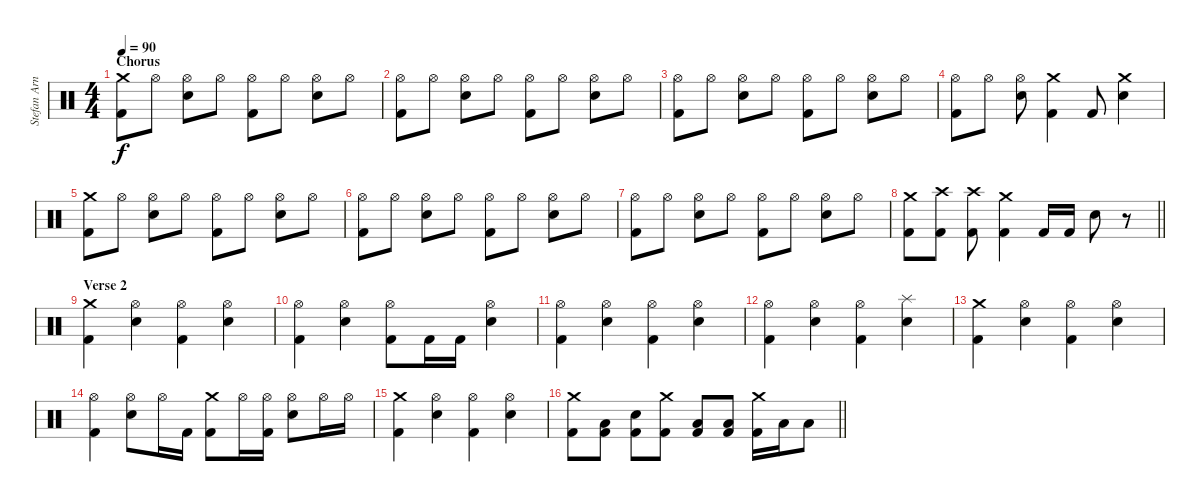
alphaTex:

\track ("Stefan Arnold" "Stefan Arn") {instrument percussion}
\staff {score}
\articulation defaults
\ts (4 4)
\section ("" "Chorus")
\tempo 90
\clef neutral
\ks c
("Crash medium (hit)" "Kick (hit) 2").8{dy f} "Hi-Hat (open)".8 ("Hi-Hat (open)" "Electric Snare (hit)").8 "Hi-Hat (open)".8 ("Hi-Hat (open)" "Kick (hit) 2").8 "Hi-Hat (open)".8 ("Hi-Hat (open)" "Electric Snare (hit)").8 "Hi-Hat (open)".8 |
("Hi-Hat (open)" "Kick (hit) 2").8 "Hi-Hat (open)".8 ("Hi-Hat (open)" "Electric Snare (hit)").8 "Hi-Hat (open)".8 ("Hi-Hat (open)" "Kick (hit) 2").8 "Hi-Hat (open)".8 ("Hi-Hat (open)" "Electric Snare (hit)").8 "Hi-Hat (open)".8 |
("Hi-Hat (open)" "Kick (hit) 2").8 "Hi-Hat (open)".8 ("Hi-Hat (open)" "Electric Snare (hit)").8 "Hi-Hat (open)".8 ("Hi-Hat (open)" "Kick (hit) 2").8 "Hi-Hat (open)".8 ("Hi-Hat (open)" "Electric Snare (hit)").8 "Hi-Hat (open)".8 |
("Hi-Hat (open)" "Kick (hit) 2").8 "Hi-Hat (open)".8 ("Hi-Hat (open)" "Electric Snare (hit)").8 ("Crash medium (hit)" "Kick (hit) 2").4 "Kick (hit) 2".8 ("Crash medium (hit)" "Electric Snare (hit)").4 |
("Crash medium (hit)" "Kick (hit) 2").8 "Hi-Hat (open)".8 ("Hi-Hat (open)" "Electric Snare (hit)").8 "Hi-Hat (open)".8 ("Hi-Hat (open)" "Kick (hit) 2").8 "Hi-Hat (open)".8 ("Hi-Hat (open)" "Electric Snare (hit)").8 "Hi-Hat (open)".8 |
("Hi-Hat (open)" "Kick (hit) 2").8 "Hi-Hat (open)".8 ("Hi-Hat (open)" "Electric Snare (hit)").8 "Hi-Hat (open)".8 ("Hi-Hat (open)" "Kick (hit) 2").8 "Hi-Hat (open)".8 ("Hi-Hat (open)" "Electric Snare (hit)").8 "Hi-Hat (open)".8 |
("Hi-Hat (open)" "Kick (hit) 2").8 "Hi-Hat (open)".8 ("Hi-Hat (open)" "Electric Snare (hit)").8 "Hi-Hat (open)".8 ("Hi-Hat (open)" "Kick (hit) 2").8 "Hi-Hat (open)".8 ("Hi-Hat (open)" "Electric Snare (hit)").8 "Hi-Hat (open)".8 |
\barLineRight lightlight
("Crash medium (hit)" "Kick (hit) 2").8 ("Crash high (hit)" "Kick (hit) 2").8 ("Crash high (hit)" "Kick (hit) 2").8 ("Crash medium (hit)" "Kick (hit) 2").4 "Kick (hit) 2".16 "Kick (hit) 2".16 "Electric Snare (hit)".8 r.8 |
\section ("" "Verse 2")
("Crash medium (hit)" "Kick (hit) 2").4 ("Hi-Hat (open)" "Electric Snare (hit)").4 ("Hi-Hat (open)" "Kick (hit) 2").4 ("Hi-Hat (open)" "Electric Snare (hit)").4 |
("Hi-Hat (open)" "Kick (hit) 2").4 ("Hi-Hat (open)" "Electric Snare (hit)").4 ("Hi-Hat (open)" "Kick (hit) 2").8 "Kick (hit) 2".16 "Kick (hit) 2".16 ("Hi-Hat (open)" "Electric Snare (hit)").4 |
("Hi-Hat (open)" "Kick (hit) 2").4 ("Hi-Hat (open)" "Electric Snare (hit)").4 ("Hi-Hat (open)" "Kick (hit) 2").4 ("Hi-Hat (open)" "Electric Snare (hit)").4 |
("Hi-Hat (open)" "Kick (hit) 2").4 ("Hi-Hat (open)" "Electric Snare (hit)").4 ("Hi-Hat (open)" "Kick (hit) 2").4 ("Splash (hit)" "Electric Snare (hit)").4 |
("Crash medium (hit)" "Kick (hit) 2").4 ("Hi-Hat (open)" "Electric Snare (hit)").4 ("Hi-Hat (open)" "Kick (hit) 2").4 ("Hi-Hat (open)" "Electric Snare (hit)").4 |
("Hi-Hat (open)" "Kick (hit) 2").4 ("Hi-Hat (open)" "Electric Snare (hit)").8 "Hi-Hat (open)".16 "Kick (hit) 2".16 ("Crash medium (hit)" "Kick (hit) 2").8 "Hi-Hat (open)".16 ("Hi-Hat (open)" "Kick (hit) 2").16 ("Hi-Hat (open)" "Electric Snare (hit)").8 "Hi-Hat (open)".16 "Hi-Hat (open)".16 |
("Crash medium (hit)" "Kick (hit) 2").4 ("Hi-Hat (open)" "Electric Snare (hit)").4 ("Hi-Hat (open)" "Kick (hit) 2").4 ("Hi-Hat (open)" "Electric Snare (hit)").4 |
\barLineRight lightlight
("Crash medium (hit)" "Kick (hit) 2").8 ("Low Floor Tom (hit)" "Kick (hit) 2").8 ("Electric Snare (hit)" "Kick (hit) 2").8 ("Crash medium (hit)" "Kick (hit) 2").8 ("Low Floor Tom (hit)" "Kick (hit) 2").8 ("Low Floor Tom (hit)" "Kick (hit) 2").8 ("Crash medium (hit)" "Kick (hit) 2").16 "Low Floor Tom (hit)".16 "Low Floor Tom (hit)".8
